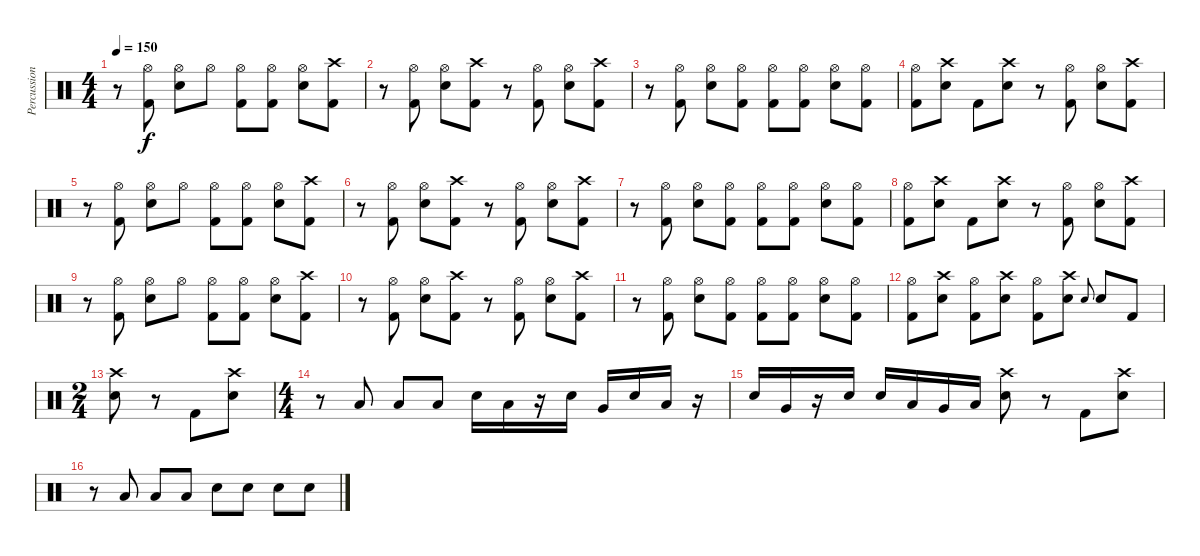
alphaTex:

\track ("Percussion" "Percussion") {instrument percussion}
\staff {score}
\articulation defaults
\ts (4 4)
\tempo 150
\clef neutral
\ks c
r.8{dy f} ("Hi-Hat (open)" "Kick (hit) 2").8 ("Hi-Hat (open)" "Electric Snare (hit)").8 "Hi-Hat (open)".8 ("Hi-Hat (open)" "Kick (hit) 2").8 ("Hi-Hat (open)" "Kick (hit) 2").8 ("Hi-Hat (open)" "Electric Snare (hit)").8 ("Crash high (hit)" "Kick (hit) 2").8 |
r.8 ("Hi-Hat (open)" "Kick (hit) 2").8 ("Hi-Hat (open)" "Electric Snare (hit)").8 ("Crash high (hit)" "Kick (hit) 2").8 r.8 ("Hi-Hat (open)" "Kick (hit) 2").8 ("Hi-Hat (open)" "Electric Snare (hit)").8 ("Crash high (hit)" "Kick (hit) 2").8 |
r.8 ("Hi-Hat (open)" "Kick (hit) 2").8 ("Hi-Hat (open)" "Electric Snare (hit)").8 ("Hi-Hat (open)" "Kick (hit) 2").8 ("Hi-Hat (open)" "Kick (hit) 2").8 ("Hi-Hat (open)" "Kick (hit) 2").8 ("Hi-Hat (open)" "Electric Snare (hit)").8 ("Hi-Hat (open)" "Kick (hit) 2").8 |
("Hi-Hat (open)" "Kick (hit) 2").8 ("Crash high (hit)" "Electric Snare (hit)").8 "Kick (hit) 2".8 ("Crash high (hit)" "Electric Snare (hit)").8 r.8 ("Hi-Hat (open)" "Kick (hit) 2").8 ("Hi-Hat (open)" "Electric Snare (hit)").8 ("Crash high (hit)" "Kick (hit) 2").8 |
r.8 ("Hi-Hat (open)" "Kick (hit) 2").8 ("Hi-Hat (open)" "Electric Snare (hit)").8 "Hi-Hat (open)".8 ("Hi-Hat (open)" "Kick (hit) 2").8 ("Hi-Hat (open)" "Kick (hit) 2").8 ("Hi-Hat (open)" "Electric Snare (hit)").8 ("Crash high (hit)" "Kick (hit) 2").8 |
r.8 ("Hi-Hat (open)" "Kick (hit) 2").8 ("Hi-Hat (open)" "Electric Snare (hit)").8 ("Crash high (hit)" "Kick (hit) 2").8 r.8 ("Hi-Hat (open)" "Kick (hit) 2").8 ("Hi-Hat (open)" "Electric Snare (hit)").8 ("Crash high (hit)" "Kick (hit) 2").8 |
r.8 ("Hi-Hat (open)" "Kick (hit) 2").8 ("Hi-Hat (open)" "Electric Snare (hit)").8 ("Hi-Hat (open)" "Kick (hit) 2").8 ("Hi-Hat (open)" "Kick (hit) 2").8 ("Hi-Hat (open)" "Kick (hit) 2").8 ("Hi-Hat (open)" "Electric Snare (hit)").8 ("Hi-Hat (open)" "Kick (hit) 2").8 |
("Hi-Hat (open)" "Kick (hit) 2").8 ("Crash high (hit)" "Electric Snare (hit)").8 "Kick (hit) 2".8 ("Crash high (hit)" "Electric Snare (hit)").8 r.8 ("Hi-Hat (open)" "Kick (hit) 2").8 ("Hi-Hat (open)" "Electric Snare (hit)").8 ("Crash high (hit)" "Kick (hit) 2").8 |
r.8 ("Hi-Hat (open)" "Kick (hit) 2").8 ("Hi-Hat (open)" "Electric Snare (hit)").8 "Hi-Hat (open)".8 ("Hi-Hat (open)" "Kick (hit) 2").8 ("Hi-Hat (open)" "Kick (hit) 2").8 ("Hi-Hat (open)" "Electric Snare (hit)").8 ("Crash high (hit)" "Kick (hit) 2").8 |
r.8 ("Hi-Hat (open)" "Kick (hit) 2").8 ("Hi-Hat (open)" "Electric Snare (hit)").8 ("Crash high (hit)" "Kick (hit) 2").8 r.8 ("Hi-Hat (open)" "Kick (hit) 2").8 ("Hi-Hat (open)" "Electric Snare (hit)").8 ("Crash high (hit)" "Kick (hit) 2").8 |
r.8 ("Hi-Hat (open)" "Kick (hit) 2").8 ("Hi-Hat (open)" "Electric Snare (hit)").8 ("Hi-Hat (open)" "Kick (hit) 2").8 ("Hi-Hat (open)" "Kick (hit) 2").8 ("Hi-Hat (open)" "Kick (hit) 2").8 ("Hi-Hat (open)" "Electric Snare (hit)").8 ("Hi-Hat (open)" "Kick (hit) 2").8 |
("Hi-Hat (open)" "Kick (hit) 2").8 ("Crash high (hit)" "Electric Snare (hit)").8 ("Hi-Hat (open)" "Kick (hit) 2").8 ("Crash high (hit)" "Electric Snare (hit)").8 ("Hi-Hat (open)" "Kick (hit) 2").8 ("Crash high (hit)" "Electric Snare (hit)").8 "Electric Snare (hit)".8{gr onbeat} "Electric Snare (hit)".8 "Kick (hit) 2".8 |
\ts (2 4)
("Crash high (hit)" "Electric Snare (hit)").8 r.8 "Kick (hit) 2".8 ("Crash high (hit)" "Electric Snare (hit)").8 |
\ts (4 4)
r.8 "Low Floor Tom (hit)".8 "Low Floor Tom (hit)".8 "Low Floor Tom (hit)".8 "Electric Snare (hit)".16 "Low Floor Tom (hit)".16 r.16 "Electric Snare (hit)".16 "Very Low Tom (hit)".16 "Electric Snare (hit)".16 "Low Floor Tom (hit)".16 r.16 |
"Electric Snare (hit)".16 "Very Low Tom (hit)".16 r.16 "Electric Snare (hit)".16 "Electric Snare (hit)".16 "Low Tom (hit)".16 "Very Low Tom (hit)".16 "Low Floor Tom (hit)".16 ("Crash high (hit)" "Electric Snare (hit)").8 r.8 "Kick (hit) 2".8 ("Crash high (hit)" "Electric Snare (hit)").8 |
r.8 "Low Floor Tom (hit)".8 "Low Floor Tom (hit)".8 "Low Floor Tom (hit)".8 "Electric Snare (hit)".8 "Electric Snare (hit)".8 "Electric Snare (hit)".8 "Electric Snare (hit)".8
